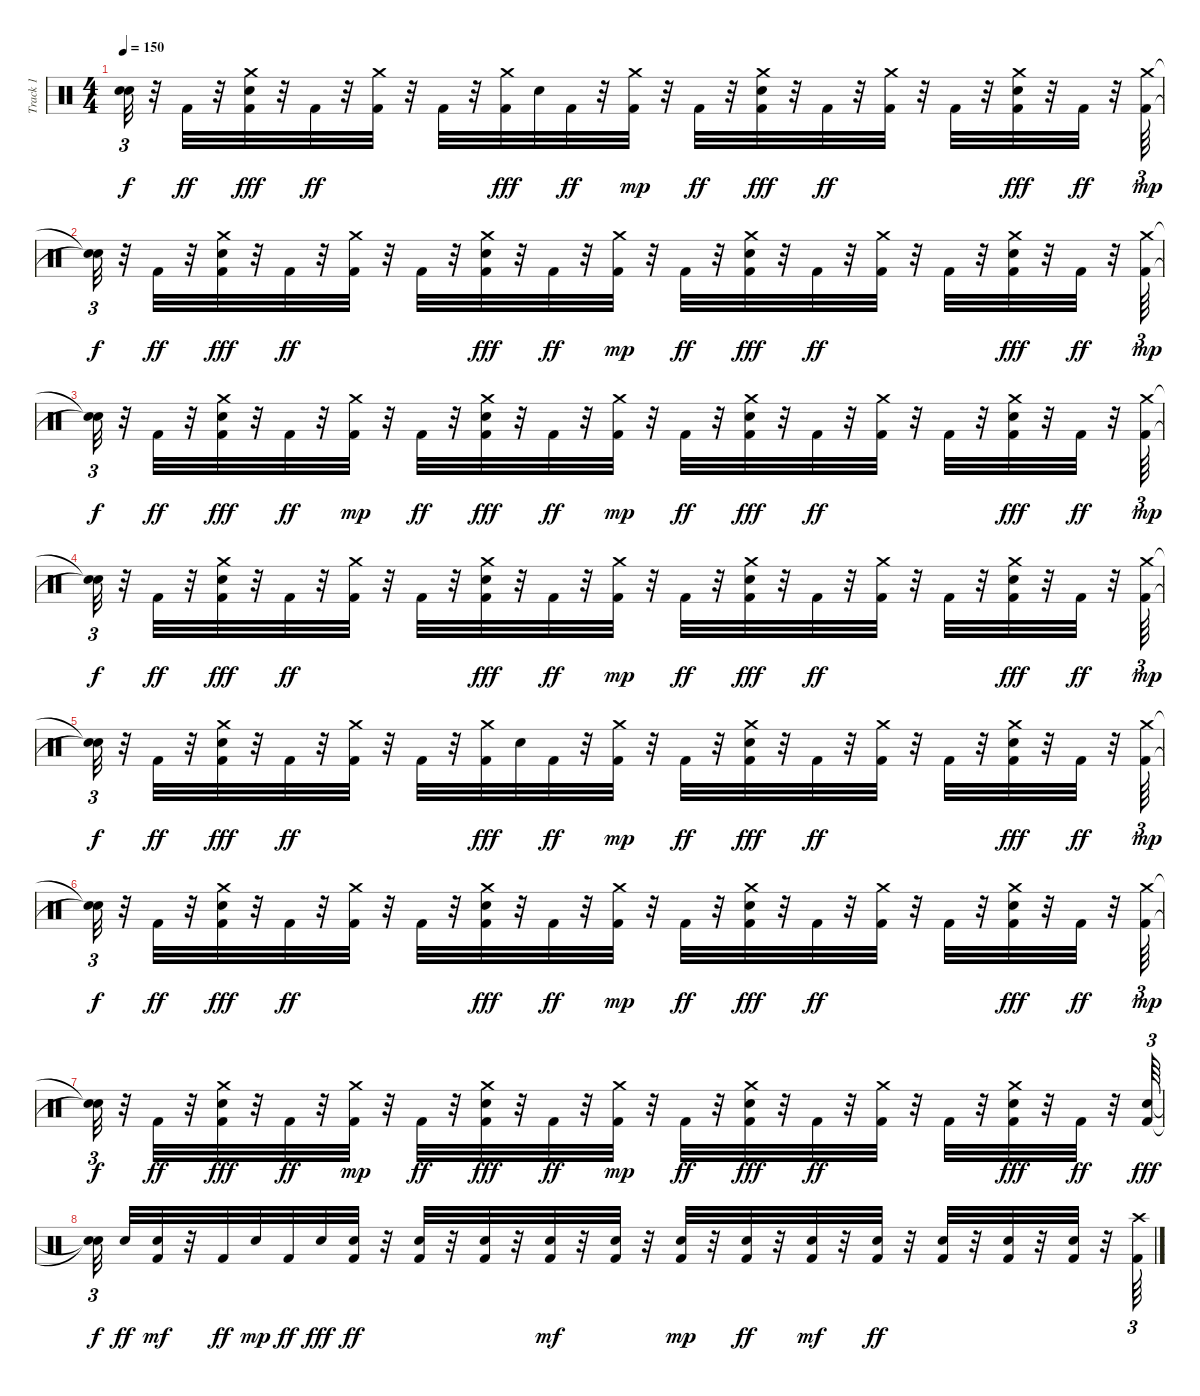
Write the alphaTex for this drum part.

\track ("Track 1" "Track 1") {instrument percussion}
\staff {score}
\articulation defaults
\ts (4 4)
\tempo 150
\clef neutral
\ks c
("Snare (hit)"{t} "Snare (hit)"{t}).32{tu (3 2) dy f} r.32 "Kick (hit) 2".32{dy ff} r.32 ("Kick (hit) 2" "Crash medium (hit)" "Snare (hit) 2").32{dy fff} r.32 "Kick (hit) 2".32{dy ff} r.32 ("Crash medium (hit)" "Kick (hit) 2").32 r.32 "Kick (hit) 2".32 r.32 ("Kick (hit) 2" "Crash medium (hit)").32{dy fff} "Snare (hit) 2".32 "Kick (hit) 2".32{dy ff} r.32 ("Kick (hit) 2" "Crash medium (hit)").32{dy mp} r.32 "Kick (hit) 2".32{dy ff} r.32 ("Kick (hit) 2" "Snare (hit) 2" "Crash medium (hit)").32{dy fff} r.32 "Kick (hit) 2".32{dy ff} r.32 ("Crash medium (hit)" "Kick (hit) 2").32 r.32 "Kick (hit) 2".32 r.32 ("Kick (hit) 2" "Crash medium (hit)" "Snare (hit) 2").32{dy fff} r.32 "Kick (hit) 2".32{dy ff} r.32 ("Kick (hit) 2" "Crash medium (hit)").64{tu (3 2) dy mp} |
("Snare (hit)"{t} "Snare (hit)"{t}).32{tu (3 2) dy f} r.32 "Kick (hit) 2".32{dy ff} r.32 ("Kick (hit) 2" "Snare (hit) 2" "Crash medium (hit)").32{dy fff} r.32 "Kick (hit) 2".32{dy ff} r.32 ("Crash medium (hit)" "Kick (hit) 2").32 r.32 "Kick (hit) 2".32 r.32 ("Kick (hit) 2" "Crash medium (hit)" "Snare (hit) 2").32{dy fff} r.32 "Kick (hit) 2".32{dy ff} r.32 ("Kick (hit) 2" "Crash medium (hit)").32{dy mp} r.32 "Kick (hit) 2".32{dy ff} r.32 ("Kick (hit) 2" "Snare (hit) 2" "Crash medium (hit)").32{dy fff} r.32 "Kick (hit) 2".32{dy ff} r.32 ("Crash medium (hit)" "Kick (hit) 2").32 r.32 "Kick (hit) 2".32 r.32 ("Kick (hit) 2" "Snare (hit) 2" "Crash medium (hit)").32{dy fff} r.32 "Kick (hit) 2".32{dy ff} r.32 ("Kick (hit) 2" "Crash medium (hit)").64{tu (3 2) dy mp} |
("Snare (hit)"{t} "Snare (hit)"{t}).32{tu (3 2) dy f} r.32 "Kick (hit) 2".32{dy ff} r.32 ("Kick (hit) 2" "Snare (hit) 2" "Crash medium (hit)").32{dy fff} r.32 "Kick (hit) 2".32{dy ff} r.32 ("Kick (hit) 2" "Crash medium (hit)").32{dy mp} r.32 "Kick (hit) 2".32{dy ff} r.32 ("Kick (hit) 2" "Snare (hit) 2" "Crash medium (hit)").32{dy fff} r.32 "Kick (hit) 2".32{dy ff} r.32 ("Kick (hit) 2" "Crash medium (hit)").32{dy mp} r.32 "Kick (hit) 2".32{dy ff} r.32 ("Snare (hit) 2" "Kick (hit) 2" "Crash medium (hit)").32{dy fff} r.32 "Kick (hit) 2".32{dy ff} r.32 ("Crash medium (hit)" "Kick (hit) 2").32 r.32 "Kick (hit) 2".32 r.32 ("Kick (hit) 2" "Snare (hit) 2" "Crash medium (hit)").32{dy fff} r.32 "Kick (hit) 2".32{dy ff} r.32 ("Kick (hit) 2" "Crash medium (hit)").64{tu (3 2) dy mp} |
("Snare (hit)"{t} "Snare (hit)"{t}).32{tu (3 2) dy f} r.32 "Kick (hit) 2".32{dy ff} r.32 ("Kick (hit) 2" "Crash medium (hit)" "Snare (hit) 2").32{dy fff} r.32 "Kick (hit) 2".32{dy ff} r.32 ("Crash medium (hit)" "Kick (hit) 2").32 r.32 "Kick (hit) 2".32 r.32 ("Kick (hit) 2" "Crash medium (hit)" "Snare (hit) 2").32{dy fff} r.32 "Kick (hit) 2".32{dy ff} r.32 ("Kick (hit) 2" "Crash medium (hit)").32{dy mp} r.32 "Kick (hit) 2".32{dy ff} r.32 ("Kick (hit) 2" "Snare (hit) 2" "Crash medium (hit)").32{dy fff} r.32 "Kick (hit) 2".32{dy ff} r.32 ("Crash medium (hit)" "Kick (hit) 2").32 r.32 "Kick (hit) 2".32 r.32 ("Kick (hit) 2" "Crash medium (hit)" "Snare (hit) 2").32{dy fff} r.32 "Kick (hit) 2".32{dy ff} r.32 ("Kick (hit) 2" "Crash medium (hit)").64{tu (3 2) dy mp} |
("Snare (hit)"{t} "Snare (hit)"{t}).32{tu (3 2) dy f} r.32 "Kick (hit) 2".32{dy ff} r.32 ("Kick (hit) 2" "Crash medium (hit)" "Snare (hit) 2").32{dy fff} r.32 "Kick (hit) 2".32{dy ff} r.32 ("Crash medium (hit)" "Kick (hit) 2").32 r.32 "Kick (hit) 2".32 r.32 ("Kick (hit) 2" "Crash medium (hit)").32{dy fff} "Snare (hit) 2".32 "Kick (hit) 2".32{dy ff} r.32 ("Kick (hit) 2" "Crash medium (hit)").32{dy mp} r.32 "Kick (hit) 2".32{dy ff} r.32 ("Kick (hit) 2" "Snare (hit) 2" "Crash medium (hit)").32{dy fff} r.32 "Kick (hit) 2".32{dy ff} r.32 ("Crash medium (hit)" "Kick (hit) 2").32 r.32 "Kick (hit) 2".32 r.32 ("Kick (hit) 2" "Crash medium (hit)" "Snare (hit) 2").32{dy fff} r.32 "Kick (hit) 2".32{dy ff} r.32 ("Kick (hit) 2" "Crash medium (hit)").64{tu (3 2) dy mp} |
("Snare (hit)"{t} "Snare (hit)"{t}).32{tu (3 2) dy f} r.32 "Kick (hit) 2".32{dy ff} r.32 ("Kick (hit) 2" "Snare (hit) 2" "Crash medium (hit)").32{dy fff} r.32 "Kick (hit) 2".32{dy ff} r.32 ("Crash medium (hit)" "Kick (hit) 2").32 r.32 "Kick (hit) 2".32 r.32 ("Kick (hit) 2" "Crash medium (hit)" "Snare (hit) 2").32{dy fff} r.32 "Kick (hit) 2".32{dy ff} r.32 ("Kick (hit) 2" "Crash medium (hit)").32{dy mp} r.32 "Kick (hit) 2".32{dy ff} r.32 ("Kick (hit) 2" "Snare (hit) 2" "Crash medium (hit)").32{dy fff} r.32 "Kick (hit) 2".32{dy ff} r.32 ("Crash medium (hit)" "Kick (hit) 2").32 r.32 "Kick (hit) 2".32 r.32 ("Kick (hit) 2" "Snare (hit) 2" "Crash medium (hit)").32{dy fff} r.32 "Kick (hit) 2".32{dy ff} r.32 ("Kick (hit) 2" "Crash medium (hit)").64{tu (3 2) dy mp} |
("Snare (hit)"{t} "Snare (hit)"{t}).32{tu (3 2) dy f} r.32 "Kick (hit) 2".32{dy ff} r.32 ("Kick (hit) 2" "Snare (hit) 2" "Crash medium (hit)").32{dy fff} r.32 "Kick (hit) 2".32{dy ff} r.32 ("Kick (hit) 2" "Crash medium (hit)").32{dy mp} r.32 "Kick (hit) 2".32{dy ff} r.32 ("Kick (hit) 2" "Snare (hit) 2" "Crash medium (hit)").32{dy fff} r.32 "Kick (hit) 2".32{dy ff} r.32 ("Kick (hit) 2" "Crash medium (hit)").32{dy mp} r.32 "Kick (hit) 2".32{dy ff} r.32 ("Snare (hit) 2" "Kick (hit) 2" "Crash medium (hit)").32{dy fff} r.32 "Kick (hit) 2".32{dy ff} r.32 ("Crash medium (hit)" "Kick (hit) 2").32 r.32 "Kick (hit) 2".32 r.32 ("Kick (hit) 2" "Snare (hit) 2" "Crash medium (hit)").32{dy fff} r.32 "Kick (hit) 2".32{dy ff} r.32 ("Kick (hit) 2" "Snare (hit) 2").64{tu (3 2) dy fff} |
("Snare (hit)"{t} "Snare (hit)"{t}).32{tu (3 2) dy f beam splitsecondary} "Snare (hit) 2".32{dy ff} ("Kick (hit) 2" "Snare (hit) 2").32{dy mf} r.32 "Kick (hit) 2".32{dy ff} "Snare (hit) 2".32{dy mp} "Kick (hit) 2".32{dy ff} "Snare (hit) 2".32{dy fff} ("Snare (hit) 2" "Kick (hit) 2").32{dy ff} r.32 ("Kick (hit) 2" "Snare (hit) 2").32 r.32 ("Snare (hit) 2" "Kick (hit) 2").32 r.32 ("Kick (hit) 2" "Snare (hit) 2").32{dy mf} r.32 ("Kick (hit) 2" "Snare (hit) 2").32 r.32 ("Kick (hit) 2" "Snare (hit) 2").32{dy mp} r.32 ("Snare (hit) 2" "Kick (hit) 2").32{dy ff} r.32 ("Kick (hit) 2" "Snare (hit) 2").32{dy mf} r.32 ("Kick (hit) 2" "Snare (hit) 2").32{dy ff} r.32 ("Snare (hit) 2" "Kick (hit) 2").32 r.32 ("Snare (hit) 2" "Kick (hit) 2").32 r.32 ("Snare (hit) 2" "Kick (hit) 2").32 r.32 ("Crash high (hit)" "Kick (hit) 2").64{tu (3 2)}
